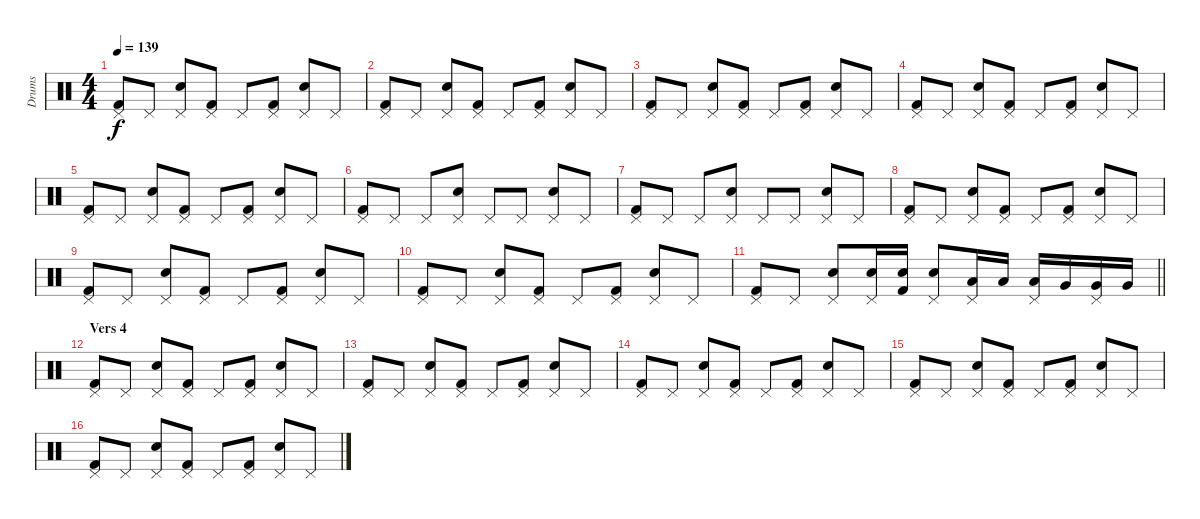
\track ("Drums" "Drums") {instrument percussion}
\staff {score}
\articulation defaults
\ts (4 4)
\tempo 139
\clef neutral
\ks c
("Pedal Hi-Hat (hit)" "Kick (hit) 2").8{dy f} "Pedal Hi-Hat (hit)".8 ("Pedal Hi-Hat (hit)" "Snare (hit) 2").8 ("Pedal Hi-Hat (hit)" "Kick (hit) 2").8 "Pedal Hi-Hat (hit)".8 ("Pedal Hi-Hat (hit)" "Kick (hit) 2").8 ("Pedal Hi-Hat (hit)" "Snare (hit) 2").8 "Pedal Hi-Hat (hit)".8 |
("Pedal Hi-Hat (hit)" "Kick (hit) 2").8 "Pedal Hi-Hat (hit)".8 ("Pedal Hi-Hat (hit)" "Snare (hit) 2").8 ("Pedal Hi-Hat (hit)" "Kick (hit) 2").8 "Pedal Hi-Hat (hit)".8 ("Pedal Hi-Hat (hit)" "Kick (hit) 2").8 ("Pedal Hi-Hat (hit)" "Snare (hit) 2").8 "Pedal Hi-Hat (hit)".8 |
("Pedal Hi-Hat (hit)" "Kick (hit) 2").8 "Pedal Hi-Hat (hit)".8 ("Pedal Hi-Hat (hit)" "Snare (hit) 2").8 ("Pedal Hi-Hat (hit)" "Kick (hit) 2").8 "Pedal Hi-Hat (hit)".8 ("Pedal Hi-Hat (hit)" "Kick (hit) 2").8 ("Pedal Hi-Hat (hit)" "Snare (hit) 2").8 "Pedal Hi-Hat (hit)".8 |
("Pedal Hi-Hat (hit)" "Kick (hit) 2").8 "Pedal Hi-Hat (hit)".8 ("Pedal Hi-Hat (hit)" "Snare (hit) 2").8 ("Pedal Hi-Hat (hit)" "Kick (hit) 2").8 "Pedal Hi-Hat (hit)".8 ("Pedal Hi-Hat (hit)" "Kick (hit) 2").8 ("Pedal Hi-Hat (hit)" "Snare (hit) 2").8 "Pedal Hi-Hat (hit)".8 |
("Pedal Hi-Hat (hit)" "Kick (hit) 2").8 "Pedal Hi-Hat (hit)".8 ("Pedal Hi-Hat (hit)" "Snare (hit) 2").8 ("Pedal Hi-Hat (hit)" "Kick (hit) 2").8 "Pedal Hi-Hat (hit)".8 ("Pedal Hi-Hat (hit)" "Kick (hit) 2").8 ("Pedal Hi-Hat (hit)" "Snare (hit) 2").8 "Pedal Hi-Hat (hit)".8 |
("Pedal Hi-Hat (hit)" "Kick (hit) 2").8 "Pedal Hi-Hat (hit)".8 "Pedal Hi-Hat (hit)".8 ("Pedal Hi-Hat (hit)" "Snare (hit) 2").8 "Pedal Hi-Hat (hit)".8 "Pedal Hi-Hat (hit)".8 ("Pedal Hi-Hat (hit)" "Snare (hit) 2").8 "Pedal Hi-Hat (hit)".8 |
("Pedal Hi-Hat (hit)" "Kick (hit) 2").8 "Pedal Hi-Hat (hit)".8 "Pedal Hi-Hat (hit)".8 ("Pedal Hi-Hat (hit)" "Snare (hit) 2").8 "Pedal Hi-Hat (hit)".8 "Pedal Hi-Hat (hit)".8 ("Pedal Hi-Hat (hit)" "Snare (hit) 2").8 "Pedal Hi-Hat (hit)".8 |
("Pedal Hi-Hat (hit)" "Kick (hit) 2").8 "Pedal Hi-Hat (hit)".8 ("Pedal Hi-Hat (hit)" "Snare (hit) 2").8 ("Pedal Hi-Hat (hit)" "Kick (hit) 2").8 "Pedal Hi-Hat (hit)".8 ("Pedal Hi-Hat (hit)" "Kick (hit) 2").8 ("Pedal Hi-Hat (hit)" "Snare (hit) 2").8 "Pedal Hi-Hat (hit)".8 |
("Pedal Hi-Hat (hit)" "Kick (hit) 2").8 "Pedal Hi-Hat (hit)".8 ("Pedal Hi-Hat (hit)" "Snare (hit) 2").8 ("Pedal Hi-Hat (hit)" "Kick (hit) 2").8 "Pedal Hi-Hat (hit)".8 ("Pedal Hi-Hat (hit)" "Kick (hit) 2").8 ("Pedal Hi-Hat (hit)" "Snare (hit) 2").8 "Pedal Hi-Hat (hit)".8 |
("Pedal Hi-Hat (hit)" "Kick (hit) 2").8 "Pedal Hi-Hat (hit)".8 ("Pedal Hi-Hat (hit)" "Snare (hit) 2").8 ("Pedal Hi-Hat (hit)" "Kick (hit) 2").8 "Pedal Hi-Hat (hit)".8 ("Pedal Hi-Hat (hit)" "Kick (hit) 2").8 ("Pedal Hi-Hat (hit)" "Snare (hit) 2").8 "Pedal Hi-Hat (hit)".8 |
\barLineRight lightlight
("Pedal Hi-Hat (hit)" "Kick (hit) 2").8 "Pedal Hi-Hat (hit)".8 ("Pedal Hi-Hat (hit)" "Snare (hit) 2").8 ("Pedal Hi-Hat (hit)" "Snare (hit) 2").16 ("Snare (hit) 2" "Kick (hit) 2").16 ("Pedal Hi-Hat (hit)" "Snare (hit) 2").8 ("Pedal Hi-Hat (hit)" "Low Tom (hit)").16 "Low Tom (hit)".16 ("Pedal Hi-Hat (hit)" "Low Tom (hit)").16 "Very Low Tom (hit)".16 ("Pedal Hi-Hat (hit)" "Very Low Tom (hit)").16 "Very Low Tom (hit)".16 |
\section ("" "Vers 4")
("Pedal Hi-Hat (hit)" "Kick (hit) 2").8 "Pedal Hi-Hat (hit)".8 ("Pedal Hi-Hat (hit)" "Snare (hit) 2").8 ("Pedal Hi-Hat (hit)" "Kick (hit) 2").8 "Pedal Hi-Hat (hit)".8 ("Pedal Hi-Hat (hit)" "Kick (hit) 2").8 ("Pedal Hi-Hat (hit)" "Snare (hit) 2").8 "Pedal Hi-Hat (hit)".8 |
("Pedal Hi-Hat (hit)" "Kick (hit) 2").8 "Pedal Hi-Hat (hit)".8 ("Pedal Hi-Hat (hit)" "Snare (hit) 2").8 ("Pedal Hi-Hat (hit)" "Kick (hit) 2").8 "Pedal Hi-Hat (hit)".8 ("Pedal Hi-Hat (hit)" "Kick (hit) 2").8 ("Pedal Hi-Hat (hit)" "Snare (hit) 2").8 "Pedal Hi-Hat (hit)".8 |
("Pedal Hi-Hat (hit)" "Kick (hit) 2").8 "Pedal Hi-Hat (hit)".8 ("Pedal Hi-Hat (hit)" "Snare (hit) 2").8 ("Pedal Hi-Hat (hit)" "Kick (hit) 2").8 "Pedal Hi-Hat (hit)".8 ("Pedal Hi-Hat (hit)" "Kick (hit) 2").8 ("Pedal Hi-Hat (hit)" "Snare (hit) 2").8 "Pedal Hi-Hat (hit)".8 |
("Pedal Hi-Hat (hit)" "Kick (hit) 2").8 "Pedal Hi-Hat (hit)".8 ("Pedal Hi-Hat (hit)" "Snare (hit) 2").8 ("Pedal Hi-Hat (hit)" "Kick (hit) 2").8 "Pedal Hi-Hat (hit)".8 ("Pedal Hi-Hat (hit)" "Kick (hit) 2").8 ("Pedal Hi-Hat (hit)" "Snare (hit) 2").8 "Pedal Hi-Hat (hit)".8 |
("Pedal Hi-Hat (hit)" "Kick (hit) 2").8 "Pedal Hi-Hat (hit)".8 ("Pedal Hi-Hat (hit)" "Snare (hit) 2").8 ("Pedal Hi-Hat (hit)" "Kick (hit) 2").8 "Pedal Hi-Hat (hit)".8 ("Pedal Hi-Hat (hit)" "Kick (hit) 2").8 ("Pedal Hi-Hat (hit)" "Snare (hit) 2").8 "Pedal Hi-Hat (hit)".8
